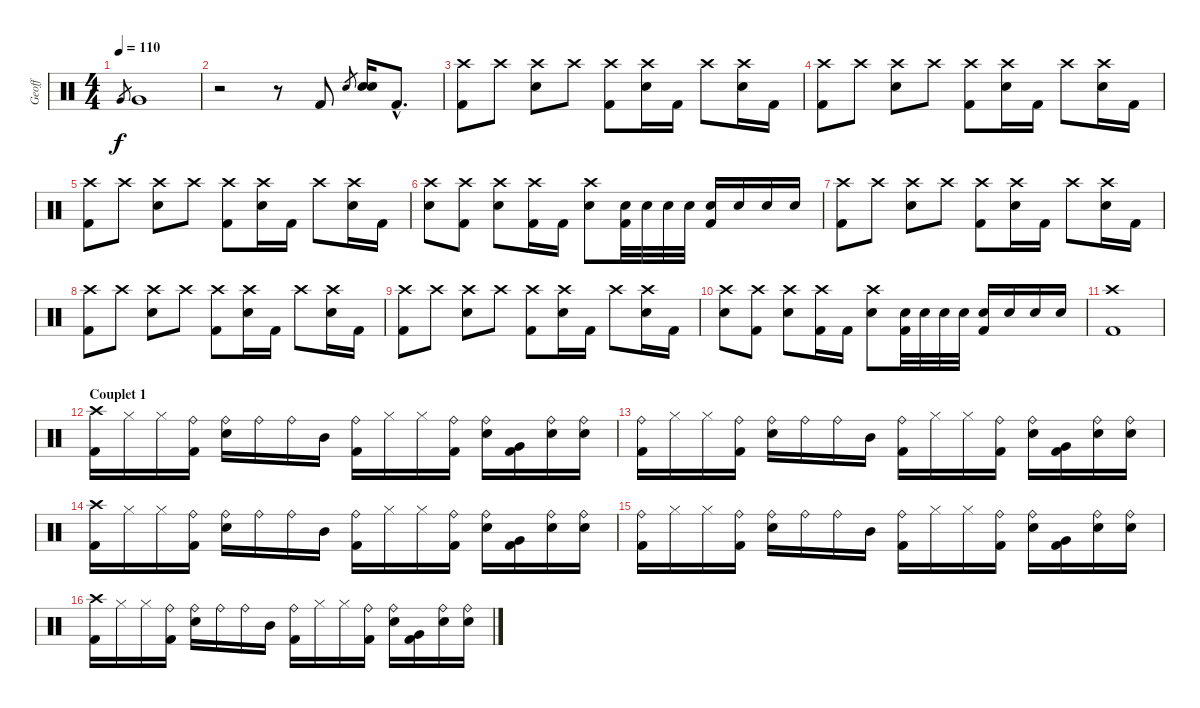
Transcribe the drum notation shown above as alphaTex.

\track ("Geoff" "Geoff") {instrument percussion}
\staff {score}
\articulation defaults
\ts (4 4)
\tempo 110
\clef neutral
\ks c "Very Low Tom (hit)".8{gr dy f} "Very Low Tom (hit)".1
|
r.2 r.8 "Kick (hit) 2".8 "Electric Snare (hit)".8{gr} ("Electric Snare (hit)" "Electric Snare (hit)").16 "Kick (hit) 2"{hac}.8{d} |
("Crash high (hit)" "Kick (hit) 2").8 "Crash high (hit)".8 ("Crash high (hit)" "Electric Snare (hit)").8 "Crash high (hit)".8 ("Crash high (hit)" "Kick (hit) 2").8 ("Crash high (hit)" "Electric Snare (hit)").16 "Kick (hit) 2".16 "Crash high (hit)".8 ("Crash high (hit)" "Electric Snare (hit)").16 "Kick (hit) 2".16 |
("Crash high (hit)" "Kick (hit) 2").8 "Crash high (hit)".8 ("Crash high (hit)" "Electric Snare (hit)").8 "Crash high (hit)".8 ("Crash high (hit)" "Kick (hit) 2").8 ("Crash high (hit)" "Electric Snare (hit)").16 "Kick (hit) 2".16 "Crash high (hit)".8 ("Crash high (hit)" "Electric Snare (hit)").16 "Kick (hit) 2".16 |
("Crash high (hit)" "Kick (hit) 2").8 "Crash high (hit)".8 ("Crash high (hit)" "Electric Snare (hit)").8 "Crash high (hit)".8 ("Crash high (hit)" "Kick (hit) 2").8 ("Crash high (hit)" "Electric Snare (hit)").16 "Kick (hit) 2".16 "Crash high (hit)".8 ("Crash high (hit)" "Electric Snare (hit)").16 "Kick (hit) 2".16 |
("Crash high (hit)" "Electric Snare (hit)").8 ("Crash high (hit)" "Kick (hit) 2").8 ("Crash high (hit)" "Electric Snare (hit)").8 ("Crash high (hit)" "Kick (hit) 2").16 "Kick (hit) 2".16 ("Crash high (hit)" "Electric Snare (hit)").8 ("Electric Snare (hit)" "Kick (hit) 2").32 "Electric Snare (hit)".32 "Electric Snare (hit)".32 "Electric Snare (hit)".32 ("Electric Snare (hit)" "Kick (hit) 2").16 "Electric Snare (hit)".16 "Electric Snare (hit)".16 "Electric Snare (hit)".16 |
("Crash high (hit)" "Kick (hit) 2").8 "Crash high (hit)".8 ("Crash high (hit)" "Electric Snare (hit)").8 "Crash high (hit)".8 ("Crash high (hit)" "Kick (hit) 2").8 ("Crash high (hit)" "Electric Snare (hit)").16 "Kick (hit) 2".16 "Crash high (hit)".8 ("Crash high (hit)" "Electric Snare (hit)").16 "Kick (hit) 2".16 |
("Crash high (hit)" "Kick (hit) 2").8 "Crash high (hit)".8 ("Crash high (hit)" "Electric Snare (hit)").8 "Crash high (hit)".8 ("Crash high (hit)" "Kick (hit) 2").8 ("Crash high (hit)" "Electric Snare (hit)").16 "Kick (hit) 2".16 "Crash high (hit)".8 ("Crash high (hit)" "Electric Snare (hit)").16 "Kick (hit) 2".16 |
("Crash high (hit)" "Kick (hit) 2").8 "Crash high (hit)".8 ("Crash high (hit)" "Electric Snare (hit)").8 "Crash high (hit)".8 ("Crash high (hit)" "Kick (hit) 2").8 ("Crash high (hit)" "Electric Snare (hit)").16 "Kick (hit) 2".16 "Crash high (hit)".8 ("Crash high (hit)" "Electric Snare (hit)").16 "Kick (hit) 2".16 |
("Crash high (hit)" "Electric Snare (hit)").8 ("Crash high (hit)" "Kick (hit) 2").8 ("Crash high (hit)" "Electric Snare (hit)").8 ("Crash high (hit)" "Kick (hit) 2").16 "Kick (hit) 2".16 ("Crash high (hit)" "Electric Snare (hit)").8 ("Electric Snare (hit)" "Kick (hit) 2").32 "Electric Snare (hit)".32 "Electric Snare (hit)".32 "Electric Snare (hit)".32 ("Electric Snare (hit)" "Kick (hit) 2").16 "Electric Snare (hit)".16 "Electric Snare (hit)".16 "Electric Snare (hit)".16 |
("Crash high (hit)" "Kick (hit) 2").1 |
\section ("" "Couplet 1")
("Crash high (hit)" "Kick (hit) 2").16 "Hi-Hat (closed)".16 "Hi-Hat (closed)".16 ("Ride (bell)" "Kick (hit) 2").16 ("Ride (bell)" "Electric Snare (hit)").16 "Ride (bell)".16 "Ride (bell)".16 "Mid Tom (hit)".16 ("Ride (bell)" "Kick (hit) 2").16 "Hi-Hat (closed)".16 "Hi-Hat (closed)".16 ("Ride (bell)" "Kick (hit) 2").16 ("Ride (bell)" "Electric Snare (hit)").16 ("Very Low Tom (hit)" "Kick (hit) 2").16 ("Ride (bell)" "Electric Snare (hit)").16 ("Ride (bell)" "Electric Snare (hit)").16 |
("Ride (bell)" "Kick (hit) 2").16 "Hi-Hat (closed)".16 "Hi-Hat (closed)".16 ("Ride (bell)" "Kick (hit) 2").16 ("Ride (bell)" "Electric Snare (hit)").16 "Ride (bell)".16 "Ride (bell)".16 "Mid Tom (hit)".16 ("Ride (bell)" "Kick (hit) 2").16 "Hi-Hat (closed)".16 "Hi-Hat (closed)".16 ("Ride (bell)" "Kick (hit) 2").16 ("Ride (bell)" "Electric Snare (hit)").16 ("Very Low Tom (hit)" "Kick (hit) 2").16 ("Ride (bell)" "Electric Snare (hit)").16 ("Ride (bell)" "Electric Snare (hit)").16 |
("Crash high (hit)" "Kick (hit) 2").16 "Hi-Hat (closed)".16 "Hi-Hat (closed)".16 ("Ride (bell)" "Kick (hit) 2").16 ("Ride (bell)" "Electric Snare (hit)").16 "Ride (bell)".16 "Ride (bell)".16 "Mid Tom (hit)".16 ("Ride (bell)" "Kick (hit) 2").16 "Hi-Hat (closed)".16 "Hi-Hat (closed)".16 ("Ride (bell)" "Kick (hit) 2").16 ("Ride (bell)" "Electric Snare (hit)").16 ("Very Low Tom (hit)" "Kick (hit) 2").16 ("Ride (bell)" "Electric Snare (hit)").16 ("Ride (bell)" "Electric Snare (hit)").16 |
("Ride (bell)" "Kick (hit) 2").16 "Hi-Hat (closed)".16 "Hi-Hat (closed)".16 ("Ride (bell)" "Kick (hit) 2").16 ("Ride (bell)" "Electric Snare (hit)").16 "Ride (bell)".16 "Ride (bell)".16 "Mid Tom (hit)".16 ("Ride (bell)" "Kick (hit) 2").16 "Hi-Hat (closed)".16 "Hi-Hat (closed)".16 ("Ride (bell)" "Kick (hit) 2").16 ("Ride (bell)" "Electric Snare (hit)").16 ("Very Low Tom (hit)" "Kick (hit) 2").16 ("Ride (bell)" "Electric Snare (hit)").16 ("Ride (bell)" "Electric Snare (hit)").16 |
("Crash high (hit)" "Kick (hit) 2").16 "Hi-Hat (closed)".16 "Hi-Hat (closed)".16 ("Ride (bell)" "Kick (hit) 2").16 ("Ride (bell)" "Electric Snare (hit)").16 "Ride (bell)".16 "Ride (bell)".16 "Mid Tom (hit)".16 ("Ride (bell)" "Kick (hit) 2").16 "Hi-Hat (closed)".16 "Hi-Hat (closed)".16 ("Ride (bell)" "Kick (hit) 2").16 ("Ride (bell)" "Electric Snare (hit)").16 ("Very Low Tom (hit)" "Kick (hit) 2").16 ("Ride (bell)" "Electric Snare (hit)").16 ("Ride (bell)" "Electric Snare (hit)").16
